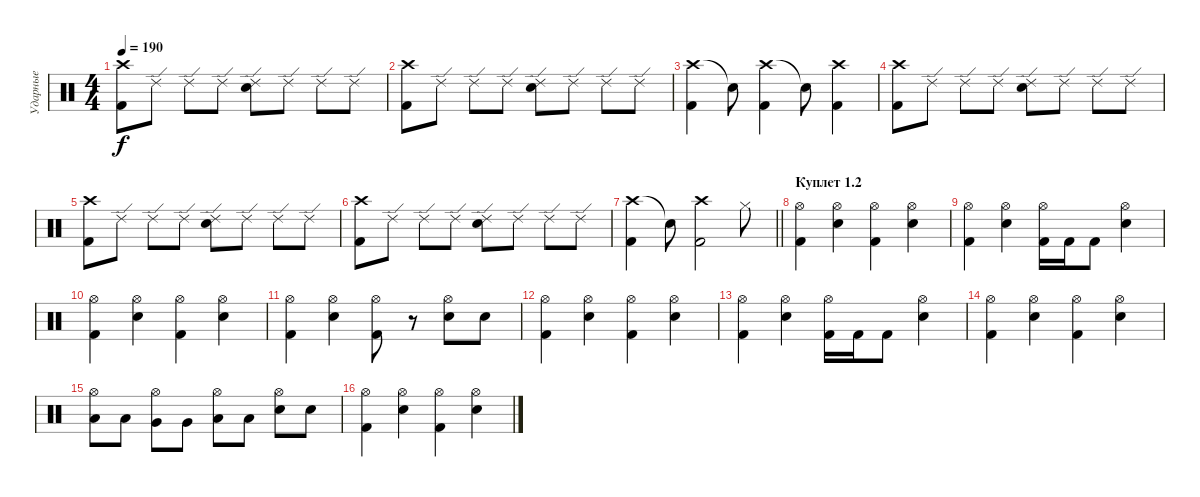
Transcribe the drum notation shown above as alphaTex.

\track ("Ударные" "Ударные") {instrument percussion}
\staff {score}
\articulation defaults
\ts (4 4)
\tempo 190
\clef neutral
\ks c
("Crash high (hit)" "Kick (hit) 2").8{dy f} "Ride (edge) 2".8 "Ride (edge) 2".8 "Ride (edge) 2".8 ("Electric Snare (hit)" "Ride (edge) 2").8 "Ride (edge) 2".8 "Ride (edge) 2".8 "Ride (edge) 2".8 |
("Crash high (hit)" "Kick (hit) 2").8 "Ride (edge) 2".8 "Ride (edge) 2".8 "Ride (edge) 2".8 ("Electric Snare (hit)" "Ride (edge) 2").8 "Ride (edge) 2".8 "Ride (edge) 2".8 "Ride (edge) 2".8 |
("Crash high (hit)" "Kick (hit) 2").4 "Snare (hit)"{t}.8 ("Crash high (hit)" "Kick (hit) 2").4 "Snare (hit)"{t}.8 ("Crash high (hit)" "Kick (hit) 2").4 |
("Crash high (hit)" "Kick (hit) 2").8 "Ride (edge) 2".8 "Ride (edge) 2".8 "Ride (edge) 2".8 ("Electric Snare (hit)" "Ride (edge) 2").8 "Ride (edge) 2".8 "Ride (edge) 2".8 "Ride (edge) 2".8 |
("Crash high (hit)" "Kick (hit) 2").8 "Ride (edge) 2".8 "Ride (edge) 2".8 "Ride (edge) 2".8 ("Electric Snare (hit)" "Ride (edge) 2").8 "Ride (edge) 2".8 "Ride (edge) 2".8 "Ride (edge) 2".8 |
("Crash high (hit)" "Kick (hit) 2").8 "Ride (edge) 2".8 "Ride (edge) 2".8 "Ride (edge) 2".8 ("Electric Snare (hit)" "Ride (edge) 2").8 "Ride (edge) 2".8 "Ride (edge) 2".8 "Ride (edge) 2".8 |
\barLineRight lightlight
("Crash high (hit)" "Kick (hit) 2").4 "Snare (hit)"{t}.8 ("Crash high (hit)" "Kick (hit) 2").2 "Hi-Hat (closed)".8 |
\section ("" "Куплет 1.2")
("Hi-Hat (open)" "Kick (hit) 2").4 ("Hi-Hat (open)" "Electric Snare (hit)").4 ("Hi-Hat (open)" "Kick (hit) 2").4 ("Hi-Hat (open)" "Electric Snare (hit)").4 |
("Hi-Hat (open)" "Kick (hit) 2").4 ("Hi-Hat (open)" "Electric Snare (hit)").4 ("Hi-Hat (open)" "Kick (hit) 2").16 "Kick (hit) 2".16 "Kick (hit) 2".8 ("Hi-Hat (open)" "Electric Snare (hit)").4 |
("Hi-Hat (open)" "Kick (hit) 2").4 ("Hi-Hat (open)" "Electric Snare (hit)").4 ("Hi-Hat (open)" "Kick (hit) 2").4 ("Hi-Hat (open)" "Electric Snare (hit)").4 |
("Hi-Hat (open)" "Kick (hit) 2").4 ("Hi-Hat (open)" "Electric Snare (hit)").4 ("Hi-Hat (open)" "Kick (hit) 2").8 r.8 ("Hi-Hat (open)" "Electric Snare (hit)").8 "Snare (hit) 2".8 |
("Hi-Hat (open)" "Kick (hit) 2").4 ("Hi-Hat (open)" "Electric Snare (hit)").4 ("Hi-Hat (open)" "Kick (hit) 2").4 ("Hi-Hat (open)" "Electric Snare (hit)").4 |
("Hi-Hat (open)" "Kick (hit) 2").4 ("Hi-Hat (open)" "Electric Snare (hit)").4 ("Hi-Hat (open)" "Kick (hit) 2").16 "Kick (hit) 2".16 "Kick (hit) 2".8 ("Hi-Hat (open)" "Electric Snare (hit)").4 |
("Hi-Hat (open)" "Kick (hit) 2").4 ("Hi-Hat (open)" "Electric Snare (hit)").4 ("Hi-Hat (open)" "Kick (hit) 2").4 ("Hi-Hat (open)" "Electric Snare (hit)").4 |
("Hi-Hat (open)" "Low Tom (hit)").8 "Low Tom (hit)".8 ("Hi-Hat (open)" "Very Low Tom (hit)").8 "Very Low Tom (hit)".8 ("Hi-Hat (open)" "Low Floor Tom (hit)").8 "Low Floor Tom (hit)".8 ("Hi-Hat (open)" "Electric Snare (hit)").8 "Electric Snare (hit)".8 |
("Hi-Hat (open)" "Kick (hit) 2").4 ("Hi-Hat (open)" "Electric Snare (hit)").4 ("Hi-Hat (open)" "Kick (hit) 2").4 ("Hi-Hat (open)" "Electric Snare (hit)").4
